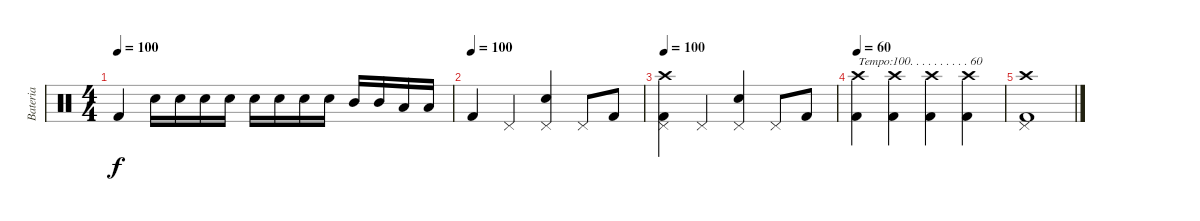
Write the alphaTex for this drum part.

\track ("Bateria" "Bateria") {instrument percussion}
\staff {score}
\articulation defaults
\ts (4 4)
\tempo 100
\clef neutral
\ks c "Kick (hit) 2".4{dy f} "Electric Snare (hit)".16 "Electric Snare (hit)".16 "Electric Snare (hit)".16 "Electric Snare (hit)".16 "Electric Snare (hit)".16 "Electric Snare (hit)".16 "Electric Snare (hit)".16 "Electric Snare (hit)".16 "Mid Tom (hit)".16 "Mid Tom (hit)".16 "Low Tom (hit)".16 "Low Tom (hit)".16
|
\tempo (100)
"Kick (hit) 2".4 "Pedal Hi-Hat (hit)".4 ("Pedal Hi-Hat (hit)" "Electric Snare (hit)").4 "Pedal Hi-Hat (hit)".8 "Kick (hit) 2".8 |
\tempo 100
("Pedal Hi-Hat (hit)" "Kick (hit) 2" "Crash high (hit)").4 "Pedal Hi-Hat (hit)".4 ("Pedal Hi-Hat (hit)" "Electric Snare (hit)").4 "Pedal Hi-Hat (hit)".8 "Kick (hit) 2".8 |
\tempo 60
("Crash high (hit)" "Kick (hit) 2").4{txt "Tempo:100. . . . . . . . . . 60"} ("Crash high (hit)" "Kick (hit) 2").4 ("Crash high (hit)" "Kick (hit) 2").4 ("Crash high (hit)" "Kick (hit) 2").4 |
("Crash high (hit)" "Pedal Hi-Hat (hit)" "Kick (hit) 2").1
